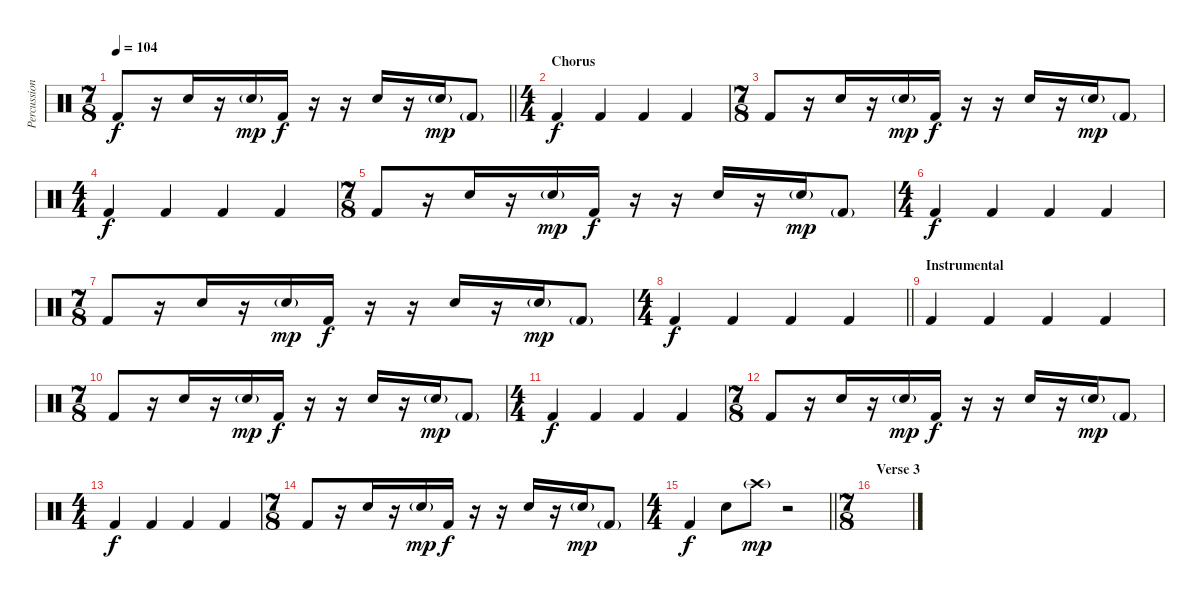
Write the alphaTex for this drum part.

\track ("Percussion" "Percussion") {instrument percussion}
\staff {score}
\articulation defaults
\ts (7 8)
\tempo 104
\clef neutral
\barLineRight lightlight
\ks c "Kick (hit) 2".8{dy f}
r.16 "Snare (hit) 2".16 r.16 "Snare (hit) 2"{g}.16{dy mp} "Kick (hit) 2".16{dy f} r.16 r.16 "Snare (hit) 2".16 r.16 "Snare (hit) 2"{g}.16{dy mp} "Kick (hit) 2"{g}.8 |
\ts (4 4)
\section ("" "Chorus")
"Kick (hit) 2".4{dy f} "Kick (hit) 2".4 "Kick (hit) 2".4 "Kick (hit) 2".4 |
\ts (7 8)
"Kick (hit) 2".8 r.16 "Snare (hit) 2".16 r.16 "Snare (hit) 2"{g}.16{dy mp} "Kick (hit) 2".16{dy f} r.16 r.16 "Snare (hit) 2".16 r.16 "Snare (hit) 2"{g}.16{dy mp} "Kick (hit) 2"{g}.8 |
\ts (4 4)
"Kick (hit) 2".4{dy f} "Kick (hit) 2".4 "Kick (hit) 2".4 "Kick (hit) 2".4 |
\ts (7 8)
"Kick (hit) 2".8 r.16 "Snare (hit) 2".16 r.16 "Snare (hit) 2"{g}.16{dy mp} "Kick (hit) 2".16{dy f} r.16 r.16 "Snare (hit) 2".16 r.16 "Snare (hit) 2"{g}.16{dy mp} "Kick (hit) 2"{g}.8 |
\ts (4 4)
"Kick (hit) 2".4{dy f} "Kick (hit) 2".4 "Kick (hit) 2".4 "Kick (hit) 2".4 |
\ts (7 8)
"Kick (hit) 2".8 r.16 "Snare (hit) 2".16 r.16 "Snare (hit) 2"{g}.16{dy mp} "Kick (hit) 2".16{dy f} r.16 r.16 "Snare (hit) 2".16 r.16 "Snare (hit) 2"{g}.16{dy mp} "Kick (hit) 2"{g}.8 |
\ts (4 4)
\barLineRight lightlight "Kick (hit) 2".4{dy f} "Kick (hit) 2".4 "Kick (hit) 2".4 "Kick (hit) 2".4
|
\section ("" "Instrumental")
"Kick (hit) 2".4 "Kick (hit) 2".4 "Kick (hit) 2".4 "Kick (hit) 2".4 |
\ts (7 8)
"Kick (hit) 2".8 r.16 "Snare (hit) 2".16 r.16 "Snare (hit) 2"{g}.16{dy mp} "Kick (hit) 2".16{dy f} r.16 r.16 "Snare (hit) 2".16 r.16 "Snare (hit) 2"{g}.16{dy mp} "Kick (hit) 2"{g}.8 |
\ts (4 4)
"Kick (hit) 2".4{dy f} "Kick (hit) 2".4 "Kick (hit) 2".4 "Kick (hit) 2".4 |
\ts (7 8)
"Kick (hit) 2".8 r.16 "Snare (hit) 2".16 r.16 "Snare (hit) 2"{g}.16{dy mp} "Kick (hit) 2".16{dy f} r.16 r.16 "Snare (hit) 2".16 r.16 "Snare (hit) 2"{g}.16{dy mp} "Kick (hit) 2"{g}.8 |
\ts (4 4)
"Kick (hit) 2".4{dy f} "Kick (hit) 2".4 "Kick (hit) 2".4 "Kick (hit) 2".4 |
\ts (7 8)
"Kick (hit) 2".8 r.16 "Snare (hit) 2".16 r.16 "Snare (hit) 2"{g}.16{dy mp} "Kick (hit) 2".16{dy f} r.16 r.16 "Snare (hit) 2".16 r.16 "Snare (hit) 2"{g}.16{dy mp} "Kick (hit) 2"{g}.8 |
\ts (4 4)
\barLineRight lightlight "Kick (hit) 2".4{dy f} "Snare (hit) 2".8 "Crash high (hit)"{g}.8{dy mp}
r.2 |
\ts (7 8)
\section ("" "Verse 3")
